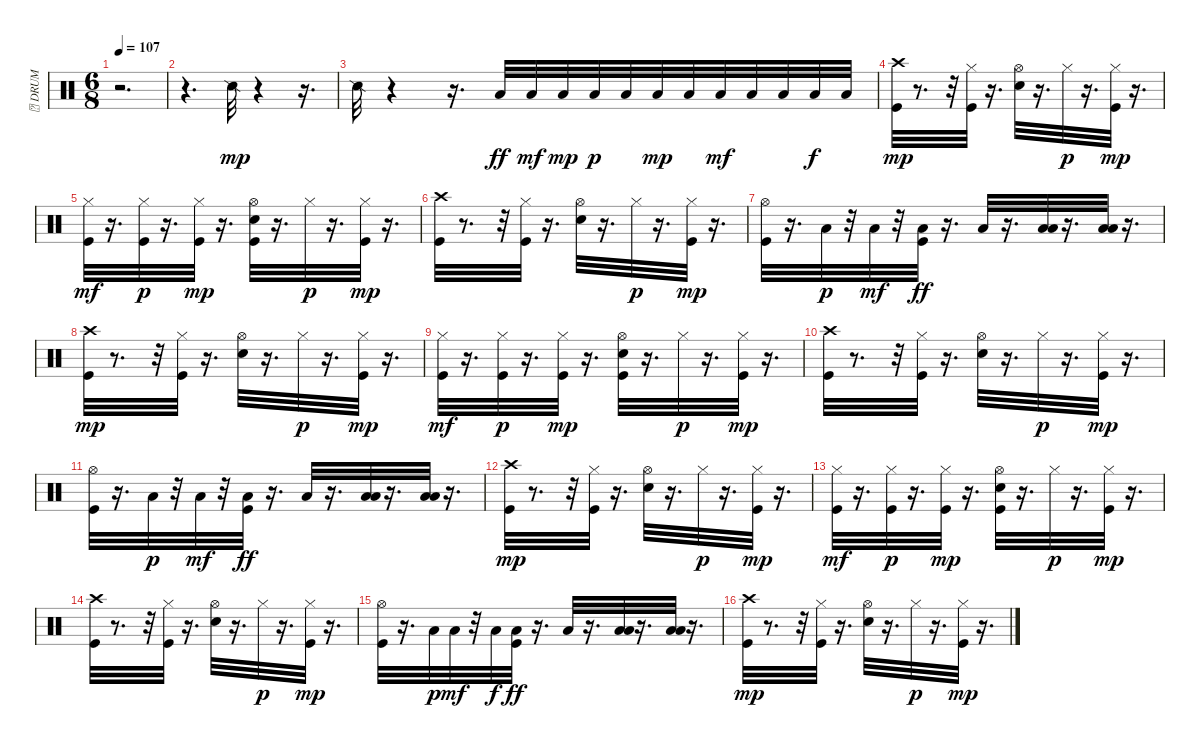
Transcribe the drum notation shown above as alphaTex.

\track ("\t DRUM" "\t DRUM") {instrument percussion}
\staff {score}
\articulation defaults
\ts (6 8)
\tempo 107
\clef neutral
\ks c
r.2{d dy mf} |
r.4{d} "Snare (side stick) 2".32{dy mp} r.4 r.16{d} |
"Snare (side stick) 2".32 r.4 r.16{d} "Low Tom (hit)".32{dy ff} "Low Tom (hit)".32{dy mf} "Low Tom (hit)".32{dy mp} "Low Tom (hit)".32{dy p} "Low Tom (hit)".32 "Low Tom (hit)".32{dy mp} "Low Tom (hit)".32 "Low Tom (hit)".32{dy mf} "Low Tom (hit)".32 "Low Tom (hit)".32 "Low Tom (hit)".32{dy f} "Low Tom (hit)".32 |
("Kick (hit)" "Crash high (hit)").32{dy mp} r.8{d} r.32 ("Kick (hit)" "Hi-Hat (closed)").32 r.16{d} ("Electric Snare (hit)" "Hi-Hat (open)").32 r.16{d} "Hi-Hat (closed)".32{dy p} r.16{d} ("Kick (hit)" "Hi-Hat (closed)").32{dy mp} r.16{d} |
("Kick (hit)" "Hi-Hat (closed)").32{dy mf} r.16{d} ("Kick (hit)" "Hi-Hat (closed)").32{dy p} r.16{d} ("Kick (hit)" "Hi-Hat (closed)").32{dy mp} r.16{d} ("Kick (hit)" "Electric Snare (hit)" "Hi-Hat (open)").32 r.16{d} "Hi-Hat (closed)".32{dy p} r.16{d} ("Kick (hit)" "Hi-Hat (closed)").32{dy mp} r.16{d} |
("Kick (hit)" "Crash high (hit)").32 r.8{d} r.32 ("Kick (hit)" "Hi-Hat (closed)").32 r.16{d} ("Electric Snare (hit)" "Hi-Hat (open)").32 r.16{d} "Hi-Hat (closed)".32{dy p} r.16{d} ("Kick (hit)" "Hi-Hat (closed)").32{dy mp} r.16{d} |
("Kick (hit)" "Hi-Hat (open)").32 r.16{d} "Low Tom (hit)".32{dy p} r.32 "Low Tom (hit)".32{dy mf} r.32 ("Kick (hit)" "Low Tom (hit)").32{dy ff} r.16{d} "Low Tom (hit)".32 r.16{d} ("Low Floor Tom (hit)" "Low Tom (hit)").32 r.16{d} ("Low Floor Tom (hit)" "Low Tom (hit)").32 r.16{d} |
("Kick (hit)" "Crash high (hit)").32{dy mp} r.8{d} r.32 ("Kick (hit)" "Hi-Hat (closed)").32 r.16{d} ("Electric Snare (hit)" "Hi-Hat (open)").32 r.16{d} "Hi-Hat (closed)".32{dy p} r.16{d} ("Kick (hit)" "Hi-Hat (closed)").32{dy mp} r.16{d} |
("Kick (hit)" "Hi-Hat (closed)").32{dy mf} r.16{d} ("Kick (hit)" "Hi-Hat (closed)").32{dy p} r.16{d} ("Kick (hit)" "Hi-Hat (closed)").32{dy mp} r.16{d} ("Kick (hit)" "Electric Snare (hit)" "Hi-Hat (open)").32 r.16{d} "Hi-Hat (closed)".32{dy p} r.16{d} ("Kick (hit)" "Hi-Hat (closed)").32{dy mp} r.16{d} |
("Kick (hit)" "Crash high (hit)").32 r.8{d} r.32 ("Kick (hit)" "Hi-Hat (closed)").32 r.16{d} ("Electric Snare (hit)" "Hi-Hat (open)").32 r.16{d} "Hi-Hat (closed)".32{dy p} r.16{d} ("Kick (hit)" "Hi-Hat (closed)").32{dy mp} r.16{d} |
("Kick (hit)" "Hi-Hat (open)").32 r.16{d} "Low Tom (hit)".32{dy p} r.32 "Low Tom (hit)".32{dy mf} r.32 ("Kick (hit)" "Low Tom (hit)").32{dy ff} r.16{d} "Low Tom (hit)".32 r.16{d} ("Low Floor Tom (hit)" "Low Tom (hit)").32 r.16{d} ("Low Floor Tom (hit)" "Low Tom (hit)").32 r.16{d} |
("Kick (hit)" "Crash high (hit)").32{dy mp} r.8{d} r.32 ("Kick (hit)" "Hi-Hat (closed)").32 r.16{d} ("Electric Snare (hit)" "Hi-Hat (open)").32 r.16{d} "Hi-Hat (closed)".32{dy p} r.16{d} ("Kick (hit)" "Hi-Hat (closed)").32{dy mp} r.16{d} |
("Kick (hit)" "Hi-Hat (closed)").32{dy mf} r.16{d} ("Kick (hit)" "Hi-Hat (closed)").32{dy p} r.16{d} ("Kick (hit)" "Hi-Hat (closed)").32{dy mp} r.16{d} ("Kick (hit)" "Electric Snare (hit)" "Hi-Hat (open)").32 r.16{d} "Hi-Hat (closed)".32{dy p} r.16{d} ("Kick (hit)" "Hi-Hat (closed)").32{dy mp} r.16{d} |
("Kick (hit)" "Crash high (hit)").32 r.8{d} r.32 ("Kick (hit)" "Hi-Hat (closed)").32 r.16{d} ("Electric Snare (hit)" "Hi-Hat (open)").32 r.16{d} "Hi-Hat (closed)".32{dy p} r.16{d} ("Kick (hit)" "Hi-Hat (closed)").32{dy mp} r.16{d} |
("Kick (hit)" "Hi-Hat (open)").32 r.16{d} "Low Tom (hit)".32{dy p} "Low Tom (hit)".32{dy mf} r.32 "Low Tom (hit)".32{dy f} ("Kick (hit)" "Low Tom (hit)").32{dy ff} r.16{d} "Low Tom (hit)".32 r.16{d} ("Low Floor Tom (hit)" "Low Tom (hit)").32 r.16{d} ("Low Floor Tom (hit)" "Low Tom (hit)").32 r.16{d} |
("Kick (hit)" "Crash high (hit)").32{dy mp} r.8{d} r.32 ("Kick (hit)" "Hi-Hat (closed)").32 r.16{d} ("Electric Snare (hit)" "Hi-Hat (open)").32 r.16{d} "Hi-Hat (closed)".32{dy p} r.16{d} ("Kick (hit)" "Hi-Hat (closed)").32{dy mp} r.16{d}
